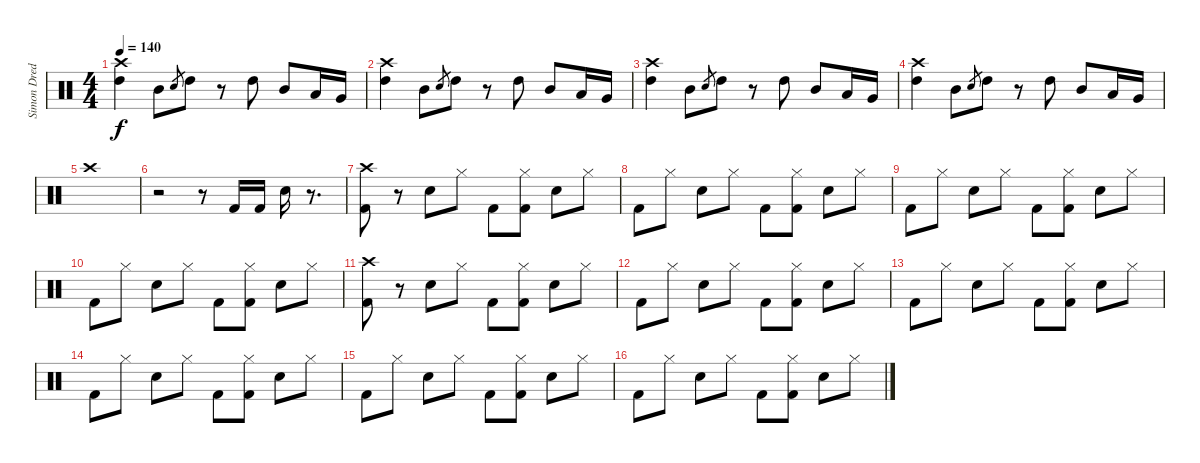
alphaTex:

\track ("Simon Dredo" "Simon Dred") {instrument percussion}
\staff {score}
\articulation defaults
\ts (4 4)
\tempo 140
\clef neutral
\ks c
("Crash high (hit)" "High Tom (hit)").4{dy f} "Mid Tom (hit)".8 "Electric Snare (hit)".8{gr} "High Tom (hit)".8 r.8 "High Tom (hit)".8 "Mid Tom (hit)".8 "Low Tom (hit)".16 "Very Low Tom (hit)".16 |
("Crash high (hit)" "High Tom (hit)").4 "Mid Tom (hit)".8 "Electric Snare (hit)".8{gr} "High Tom (hit)".8 r.8 "High Tom (hit)".8 "Mid Tom (hit)".8 "Low Tom (hit)".16 "Very Low Tom (hit)".16 |
("Crash high (hit)" "High Tom (hit)").4 "Mid Tom (hit)".8 "Electric Snare (hit)".8{gr} "High Tom (hit)".8 r.8 "High Tom (hit)".8 "Mid Tom (hit)".8 "Low Tom (hit)".16 "Very Low Tom (hit)".16 |
("Crash high (hit)" "High Tom (hit)").4 "Mid Tom (hit)".8 "Electric Snare (hit)".8{gr} "High Tom (hit)".8 r.8 "High Tom (hit)".8 "Mid Tom (hit)".8 "Low Tom (hit)".16 "Very Low Tom (hit)".16 |
"Crash high (hit)".1 |
r.2 r.8 "Kick (hit) 2".16 "Kick (hit) 2".16 "Snare (hit) 2".16 r.8{d} |
("Crash high (hit)" "Kick (hit) 2").8 r.8 "Snare (hit) 2".8 "Hi-Hat (closed)".8 "Kick (hit) 2".8 ("Hi-Hat (closed)" "Kick (hit) 2").8 "Snare (hit) 2".8 "Hi-Hat (closed)".8 |
"Kick (hit) 2".8 "Hi-Hat (closed)".8 "Snare (hit) 2".8 "Hi-Hat (closed)".8 "Kick (hit) 2".8 ("Hi-Hat (closed)" "Kick (hit) 2").8 "Snare (hit) 2".8 "Hi-Hat (closed)".8 |
"Kick (hit) 2".8 "Hi-Hat (closed)".8 "Snare (hit) 2".8 "Hi-Hat (closed)".8 "Kick (hit) 2".8 ("Hi-Hat (closed)" "Kick (hit) 2").8 "Snare (hit) 2".8 "Hi-Hat (closed)".8 |
"Kick (hit) 2".8 "Hi-Hat (closed)".8 "Snare (hit) 2".8 "Hi-Hat (closed)".8 "Kick (hit) 2".8 ("Hi-Hat (closed)" "Kick (hit) 2").8 "Snare (hit) 2".8 "Hi-Hat (closed)".8 |
("Crash high (hit)" "Kick (hit) 2").8 r.8 "Snare (hit) 2".8 "Hi-Hat (closed)".8 "Kick (hit) 2".8 ("Hi-Hat (closed)" "Kick (hit) 2").8 "Snare (hit) 2".8 "Hi-Hat (closed)".8 |
"Kick (hit) 2".8 "Hi-Hat (closed)".8 "Snare (hit) 2".8 "Hi-Hat (closed)".8 "Kick (hit) 2".8 ("Hi-Hat (closed)" "Kick (hit) 2").8 "Snare (hit) 2".8 "Hi-Hat (closed)".8 |
"Kick (hit) 2".8 "Hi-Hat (closed)".8 "Snare (hit) 2".8 "Hi-Hat (closed)".8 "Kick (hit) 2".8 ("Hi-Hat (closed)" "Kick (hit) 2").8 "Snare (hit) 2".8 "Hi-Hat (closed)".8 |
"Kick (hit) 2".8 "Hi-Hat (closed)".8 "Snare (hit) 2".8 "Hi-Hat (closed)".8 "Kick (hit) 2".8 ("Hi-Hat (closed)" "Kick (hit) 2").8 "Snare (hit) 2".8 "Hi-Hat (closed)".8 |
"Kick (hit) 2".8 "Hi-Hat (closed)".8 "Snare (hit) 2".8 "Hi-Hat (closed)".8 "Kick (hit) 2".8 ("Hi-Hat (closed)" "Kick (hit) 2").8 "Snare (hit) 2".8 "Hi-Hat (closed)".8 |
"Kick (hit) 2".8 "Hi-Hat (closed)".8 "Snare (hit) 2".8 "Hi-Hat (closed)".8 "Kick (hit) 2".8 ("Hi-Hat (closed)" "Kick (hit) 2").8 "Snare (hit) 2".8 "Hi-Hat (closed)".8
